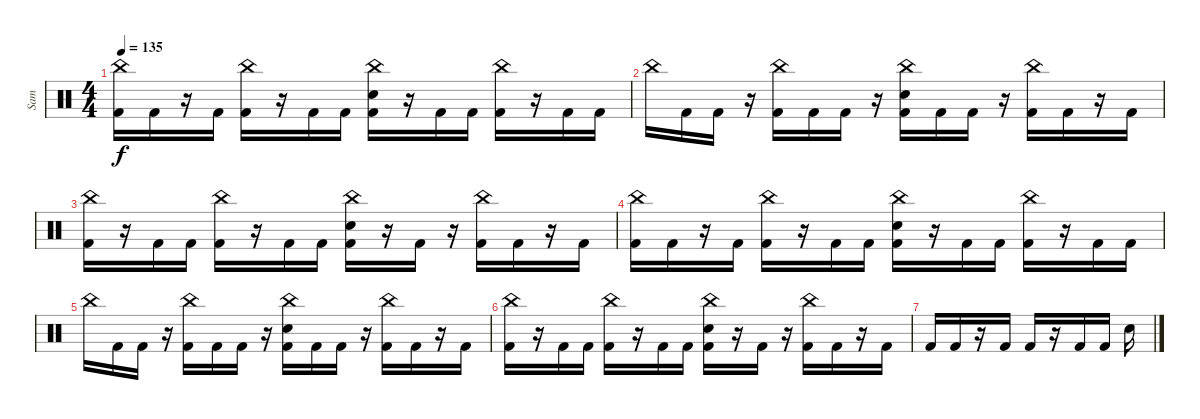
\track ("Sam" "Sam") {instrument percussion}
\staff {score}
\articulation defaults
\ts (4 4)
\tempo 135
\clef neutral
\ks c
("China (hit)" "Kick (hit) 2").16{dy f} "Kick (hit) 2".16 r.16 "Kick (hit) 2".16 ("China (hit)" "Kick (hit) 2").16 r.16 "Kick (hit) 2".16 "Kick (hit) 2".16 ("China (hit)" "Snare (hit) 2" "Kick (hit) 2").16 r.16 "Kick (hit) 2".16 "Kick (hit) 2".16 ("China (hit)" "Kick (hit) 2").16 r.16 "Kick (hit) 2".16 "Kick (hit) 2".16 |
"China (hit)".16 "Kick (hit) 2".16 "Kick (hit) 2".16 r.16 ("China (hit)" "Kick (hit) 2").16 "Kick (hit) 2".16 "Kick (hit) 2".16 r.16 ("China (hit)" "Snare (hit) 2" "Kick (hit) 2").16 "Kick (hit) 2".16 "Kick (hit) 2".16 r.16 ("China (hit)" "Kick (hit) 2").16 "Kick (hit) 2".16 r.16 "Kick (hit) 2".16 |
("China (hit)" "Kick (hit) 2").16 r.16 "Kick (hit) 2".16 "Kick (hit) 2".16 ("China (hit)" "Kick (hit) 2").16 r.16 "Kick (hit) 2".16 "Kick (hit) 2".16 ("China (hit)" "Snare (hit) 2" "Kick (hit) 2").16 r.16 "Kick (hit) 2".16 r.16 ("China (hit)" "Kick (hit) 2").16 "Kick (hit) 2".16 r.16 "Kick (hit) 2".16 |
("China (hit)" "Kick (hit) 2").16 "Kick (hit) 2".16 r.16 "Kick (hit) 2".16 ("China (hit)" "Kick (hit) 2").16 r.16 "Kick (hit) 2".16 "Kick (hit) 2".16 ("China (hit)" "Snare (hit) 2" "Kick (hit) 2").16 r.16 "Kick (hit) 2".16 "Kick (hit) 2".16 ("China (hit)" "Kick (hit) 2").16 r.16 "Kick (hit) 2".16 "Kick (hit) 2".16 |
"China (hit)".16 "Kick (hit) 2".16 "Kick (hit) 2".16 r.16 ("China (hit)" "Kick (hit) 2").16 "Kick (hit) 2".16 "Kick (hit) 2".16 r.16 ("China (hit)" "Snare (hit) 2" "Kick (hit) 2").16 "Kick (hit) 2".16 "Kick (hit) 2".16 r.16 ("China (hit)" "Kick (hit) 2").16 "Kick (hit) 2".16 r.16 "Kick (hit) 2".16 |
("China (hit)" "Kick (hit) 2").16 r.16 "Kick (hit) 2".16 "Kick (hit) 2".16 ("China (hit)" "Kick (hit) 2").16 r.16 "Kick (hit) 2".16 "Kick (hit) 2".16 ("China (hit)" "Snare (hit) 2" "Kick (hit) 2").16 r.16 "Kick (hit) 2".16 r.16 ("China (hit)" "Kick (hit) 2").16 "Kick (hit) 2".16 r.16 "Kick (hit) 2".16 |
"Kick (hit) 2".16 "Kick (hit) 2".16 r.16 "Kick (hit) 2".16 "Kick (hit) 2".16 r.16 "Kick (hit) 2".16 "Kick (hit) 2".16 "Snare (hit) 2".16
